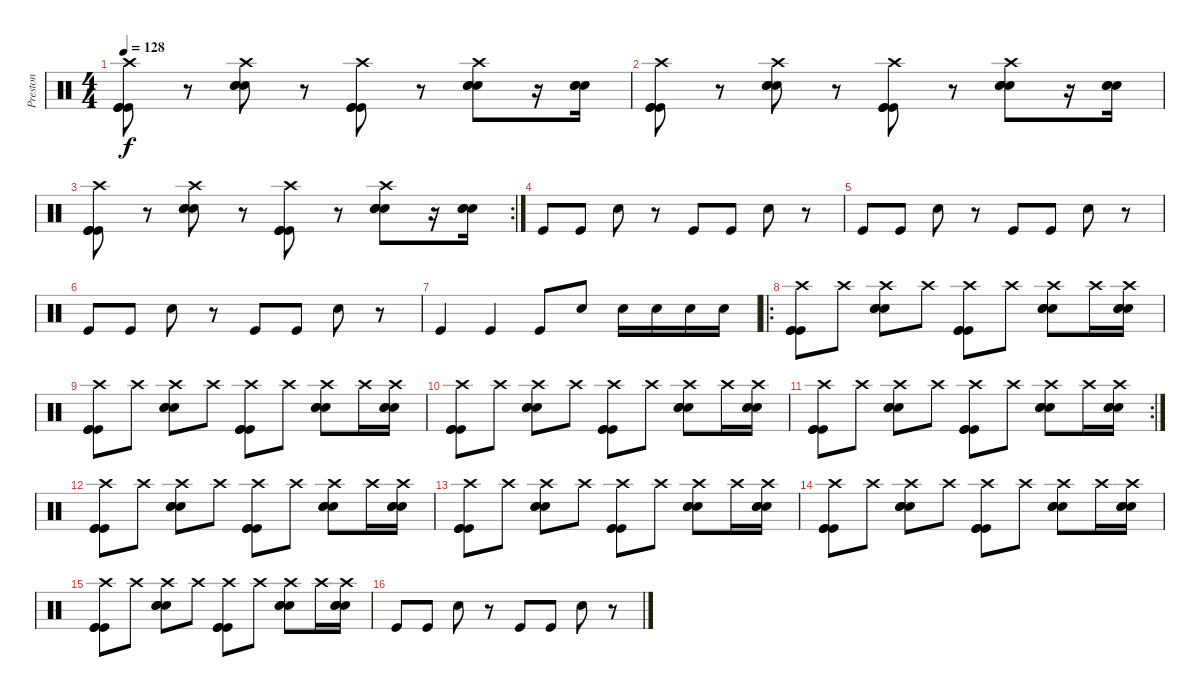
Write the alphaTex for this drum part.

\track ("Preston" "Preston") {instrument percussion}
\staff {score}
\articulation defaults
\ts (4 4)
\tempo 128
\clef neutral
\ks c
("Crash high (hit)" "Kick (hit)" "Kick (hit)" "Kick (hit)").8{dy f} r.8 ("Crash high (hit)" "Electric Snare (hit)" "Electric Snare (hit)" "Electric Snare (hit)").8 r.8 ("Crash high (hit)" "Kick (hit)" "Kick (hit)" "Kick (hit)").8 r.8 ("Crash high (hit)" "Electric Snare (hit)" "Electric Snare (hit)" "Electric Snare (hit)").8 r.16 ("Electric Snare (hit)" "Electric Snare (hit)" "Electric Snare (hit)").16 |
("Crash high (hit)" "Kick (hit)" "Kick (hit)" "Kick (hit)").8 r.8 ("Crash high (hit)" "Electric Snare (hit)" "Electric Snare (hit)" "Electric Snare (hit)").8 r.8 ("Crash high (hit)" "Kick (hit)" "Kick (hit)" "Kick (hit)").8 r.8 ("Crash high (hit)" "Electric Snare (hit)" "Electric Snare (hit)" "Electric Snare (hit)").8 r.16 ("Electric Snare (hit)" "Electric Snare (hit)" "Electric Snare (hit)").16 |
\rc 2
("Crash high (hit)" "Kick (hit)" "Kick (hit)" "Kick (hit)").8 r.8 ("Crash high (hit)" "Electric Snare (hit)" "Electric Snare (hit)" "Electric Snare (hit)").8 r.8 ("Crash high (hit)" "Kick (hit)" "Kick (hit)" "Kick (hit)").8 r.8 ("Crash high (hit)" "Electric Snare (hit)" "Electric Snare (hit)" "Electric Snare (hit)").8 r.16 ("Electric Snare (hit)" "Electric Snare (hit)" "Electric Snare (hit)").16 |
"Kick (hit)".8 "Kick (hit)".8 "Electric Snare (hit)".8 r.8 "Kick (hit)".8 "Kick (hit)".8 "Electric Snare (hit)".8 r.8 |
"Kick (hit)".8 "Kick (hit)".8 "Electric Snare (hit)".8 r.8 "Kick (hit)".8 "Kick (hit)".8 "Electric Snare (hit)".8 r.8 |
"Kick (hit)".8 "Kick (hit)".8 "Electric Snare (hit)".8 r.8 "Kick (hit)".8 "Kick (hit)".8 "Electric Snare (hit)".8 r.8 |
"Kick (hit)".4 "Kick (hit)".4 "Kick (hit)".8 "Electric Snare (hit)".8 "Electric Snare (hit)".16 "Electric Snare (hit)".16 "Electric Snare (hit)".16 "Electric Snare (hit)".16 |
\ro
("Crash high (hit)" "Kick (hit)" "Kick (hit)" "Kick (hit)").8 "Crash high (hit)".8 ("Crash high (hit)" "Electric Snare (hit)" "Electric Snare (hit)" "Electric Snare (hit)").8 "Crash high (hit)".8 ("Crash high (hit)" "Kick (hit)" "Kick (hit)" "Kick (hit)").8 "Crash high (hit)".8 ("Crash high (hit)" "Electric Snare (hit)" "Electric Snare (hit)" "Electric Snare (hit)").8 "Crash high (hit)".16 ("Crash high (hit)" "Electric Snare (hit)" "Electric Snare (hit)" "Electric Snare (hit)").16 |
("Crash high (hit)" "Kick (hit)" "Kick (hit)" "Kick (hit)").8 "Crash high (hit)".8 ("Crash high (hit)" "Electric Snare (hit)" "Electric Snare (hit)" "Electric Snare (hit)").8 "Crash high (hit)".8 ("Crash high (hit)" "Kick (hit)" "Kick (hit)" "Kick (hit)").8 "Crash high (hit)".8 ("Crash high (hit)" "Electric Snare (hit)" "Electric Snare (hit)" "Electric Snare (hit)").8 "Crash high (hit)".16 ("Crash high (hit)" "Electric Snare (hit)" "Electric Snare (hit)" "Electric Snare (hit)").16 |
("Crash high (hit)" "Kick (hit)" "Kick (hit)" "Kick (hit)").8 "Crash high (hit)".8 ("Crash high (hit)" "Electric Snare (hit)" "Electric Snare (hit)" "Electric Snare (hit)").8 "Crash high (hit)".8 ("Crash high (hit)" "Kick (hit)" "Kick (hit)" "Kick (hit)").8 "Crash high (hit)".8 ("Crash high (hit)" "Electric Snare (hit)" "Electric Snare (hit)" "Electric Snare (hit)").8 "Crash high (hit)".16 ("Crash high (hit)" "Electric Snare (hit)" "Electric Snare (hit)" "Electric Snare (hit)").16 |
\rc 2
("Crash high (hit)" "Kick (hit)" "Kick (hit)" "Kick (hit)").8 "Crash high (hit)".8 ("Crash high (hit)" "Electric Snare (hit)" "Electric Snare (hit)" "Electric Snare (hit)").8 "Crash high (hit)".8 ("Crash high (hit)" "Kick (hit)" "Kick (hit)" "Kick (hit)").8 "Crash high (hit)".8 ("Crash high (hit)" "Electric Snare (hit)" "Electric Snare (hit)" "Electric Snare (hit)").8 "Crash high (hit)".16 ("Crash high (hit)" "Electric Snare (hit)" "Electric Snare (hit)" "Electric Snare (hit)").16 |
("Crash high (hit)" "Kick (hit)" "Kick (hit)" "Kick (hit)").8 "Crash high (hit)".8 ("Crash high (hit)" "Electric Snare (hit)" "Electric Snare (hit)" "Electric Snare (hit)").8 "Crash high (hit)".8 ("Crash high (hit)" "Kick (hit)" "Kick (hit)" "Kick (hit)").8 "Crash high (hit)".8 ("Crash high (hit)" "Electric Snare (hit)" "Electric Snare (hit)" "Electric Snare (hit)").8 "Crash high (hit)".16 ("Crash high (hit)" "Electric Snare (hit)" "Electric Snare (hit)" "Electric Snare (hit)").16 |
("Crash high (hit)" "Kick (hit)" "Kick (hit)" "Kick (hit)").8 "Crash high (hit)".8 ("Crash high (hit)" "Electric Snare (hit)" "Electric Snare (hit)" "Electric Snare (hit)").8 "Crash high (hit)".8 ("Crash high (hit)" "Kick (hit)" "Kick (hit)" "Kick (hit)").8 "Crash high (hit)".8 ("Crash high (hit)" "Electric Snare (hit)" "Electric Snare (hit)" "Electric Snare (hit)").8 "Crash high (hit)".16 ("Crash high (hit)" "Electric Snare (hit)" "Electric Snare (hit)" "Electric Snare (hit)").16 |
("Crash high (hit)" "Kick (hit)" "Kick (hit)" "Kick (hit)").8 "Crash high (hit)".8 ("Crash high (hit)" "Electric Snare (hit)" "Electric Snare (hit)" "Electric Snare (hit)").8 "Crash high (hit)".8 ("Crash high (hit)" "Kick (hit)" "Kick (hit)" "Kick (hit)").8 "Crash high (hit)".8 ("Crash high (hit)" "Electric Snare (hit)" "Electric Snare (hit)" "Electric Snare (hit)").8 "Crash high (hit)".16 ("Crash high (hit)" "Electric Snare (hit)" "Electric Snare (hit)" "Electric Snare (hit)").16 |
("Crash high (hit)" "Kick (hit)" "Kick (hit)" "Kick (hit)").8 "Crash high (hit)".8 ("Crash high (hit)" "Electric Snare (hit)" "Electric Snare (hit)" "Electric Snare (hit)").8 "Crash high (hit)".8 ("Crash high (hit)" "Kick (hit)" "Kick (hit)" "Kick (hit)").8 "Crash high (hit)".8 ("Crash high (hit)" "Electric Snare (hit)" "Electric Snare (hit)" "Electric Snare (hit)").8 "Crash high (hit)".16 ("Crash high (hit)" "Electric Snare (hit)" "Electric Snare (hit)" "Electric Snare (hit)").16 |
"Kick (hit)".8 "Kick (hit)".8 "Electric Snare (hit)".8 r.8 "Kick (hit)".8 "Kick (hit)".8 "Electric Snare (hit)".8 r.8
